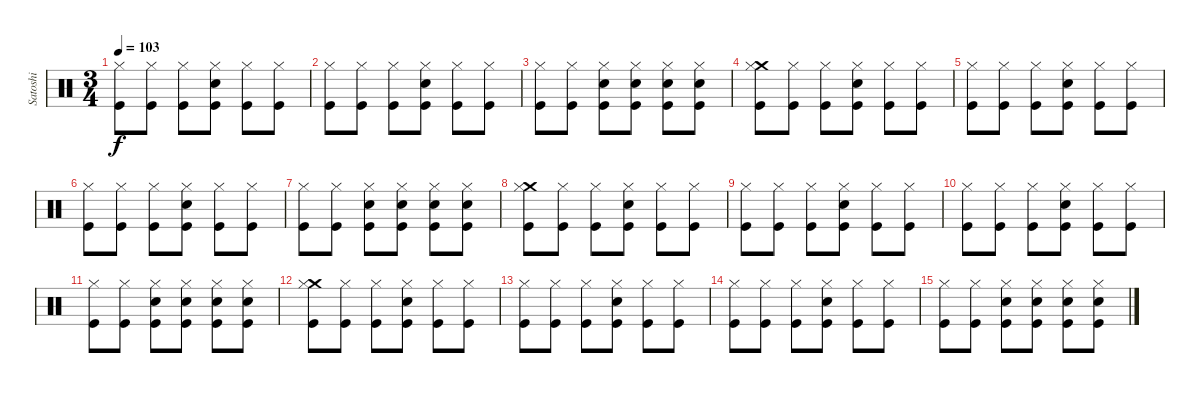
\track ("Satoshi" "Satoshi") {instrument percussion}
\staff {score}
\articulation defaults
\ts (3 4)
\tempo 103
\clef neutral
\ks c
("Hi-Hat (closed)" "Kick (hit)").8{dy f} ("Hi-Hat (closed)" "Kick (hit)").8 ("Hi-Hat (closed)" "Kick (hit)").8 ("Hi-Hat (closed)" "Electric Snare (hit)" "Kick (hit)").8 ("Hi-Hat (closed)" "Kick (hit)").8 ("Hi-Hat (closed)" "Kick (hit)").8 |
("Hi-Hat (closed)" "Kick (hit)").8 ("Hi-Hat (closed)" "Kick (hit)").8 ("Hi-Hat (closed)" "Kick (hit)").8 ("Hi-Hat (closed)" "Electric Snare (hit)" "Kick (hit)").8 ("Hi-Hat (closed)" "Kick (hit)").8 ("Hi-Hat (closed)" "Kick (hit)").8 |
("Hi-Hat (closed)" "Kick (hit)").8 ("Hi-Hat (closed)" "Kick (hit)").8 ("Hi-Hat (closed)" "Electric Snare (hit)" "Kick (hit)").8 ("Hi-Hat (closed)" "Electric Snare (hit)" "Kick (hit)").8 ("Hi-Hat (closed)" "Electric Snare (hit)" "Kick (hit)").8 ("Hi-Hat (closed)" "Electric Snare (hit)" "Kick (hit)").8 |
("Crash medium (hit)" "Hi-Hat (closed)" "Kick (hit)").8 ("Hi-Hat (closed)" "Kick (hit)").8 ("Hi-Hat (closed)" "Kick (hit)").8 ("Hi-Hat (closed)" "Electric Snare (hit)" "Kick (hit)").8 ("Hi-Hat (closed)" "Kick (hit)").8 ("Hi-Hat (closed)" "Kick (hit)").8 |
("Hi-Hat (closed)" "Kick (hit)").8 ("Hi-Hat (closed)" "Kick (hit)").8 ("Hi-Hat (closed)" "Kick (hit)").8 ("Hi-Hat (closed)" "Electric Snare (hit)" "Kick (hit)").8 ("Hi-Hat (closed)" "Kick (hit)").8 ("Hi-Hat (closed)" "Kick (hit)").8 |
("Hi-Hat (closed)" "Kick (hit)").8 ("Hi-Hat (closed)" "Kick (hit)").8 ("Hi-Hat (closed)" "Kick (hit)").8 ("Hi-Hat (closed)" "Electric Snare (hit)" "Kick (hit)").8 ("Hi-Hat (closed)" "Kick (hit)").8 ("Hi-Hat (closed)" "Kick (hit)").8 |
("Hi-Hat (closed)" "Kick (hit)").8 ("Hi-Hat (closed)" "Kick (hit)").8 ("Hi-Hat (closed)" "Electric Snare (hit)" "Kick (hit)").8 ("Hi-Hat (closed)" "Electric Snare (hit)" "Kick (hit)").8 ("Hi-Hat (closed)" "Electric Snare (hit)" "Kick (hit)").8 ("Hi-Hat (closed)" "Electric Snare (hit)" "Kick (hit)").8 |
("Crash medium (hit)" "Hi-Hat (closed)" "Kick (hit)").8 ("Hi-Hat (closed)" "Kick (hit)").8 ("Hi-Hat (closed)" "Kick (hit)").8 ("Hi-Hat (closed)" "Electric Snare (hit)" "Kick (hit)").8 ("Hi-Hat (closed)" "Kick (hit)").8 ("Hi-Hat (closed)" "Kick (hit)").8 |
("Hi-Hat (closed)" "Kick (hit)").8 ("Hi-Hat (closed)" "Kick (hit)").8 ("Hi-Hat (closed)" "Kick (hit)").8 ("Hi-Hat (closed)" "Electric Snare (hit)" "Kick (hit)").8 ("Hi-Hat (closed)" "Kick (hit)").8 ("Hi-Hat (closed)" "Kick (hit)").8 |
("Hi-Hat (closed)" "Kick (hit)").8 ("Hi-Hat (closed)" "Kick (hit)").8 ("Hi-Hat (closed)" "Kick (hit)").8 ("Hi-Hat (closed)" "Electric Snare (hit)" "Kick (hit)").8 ("Hi-Hat (closed)" "Kick (hit)").8 ("Hi-Hat (closed)" "Kick (hit)").8 |
("Hi-Hat (closed)" "Kick (hit)").8 ("Hi-Hat (closed)" "Kick (hit)").8 ("Hi-Hat (closed)" "Electric Snare (hit)" "Kick (hit)").8 ("Hi-Hat (closed)" "Electric Snare (hit)" "Kick (hit)").8 ("Hi-Hat (closed)" "Electric Snare (hit)" "Kick (hit)").8 ("Hi-Hat (closed)" "Electric Snare (hit)" "Kick (hit)").8 |
("Crash medium (hit)" "Hi-Hat (closed)" "Kick (hit)").8 ("Hi-Hat (closed)" "Kick (hit)").8 ("Hi-Hat (closed)" "Kick (hit)").8 ("Hi-Hat (closed)" "Electric Snare (hit)" "Kick (hit)").8 ("Hi-Hat (closed)" "Kick (hit)").8 ("Hi-Hat (closed)" "Kick (hit)").8 |
("Hi-Hat (closed)" "Kick (hit)").8 ("Hi-Hat (closed)" "Kick (hit)").8 ("Hi-Hat (closed)" "Kick (hit)").8 ("Hi-Hat (closed)" "Electric Snare (hit)" "Kick (hit)").8 ("Hi-Hat (closed)" "Kick (hit)").8 ("Hi-Hat (closed)" "Kick (hit)").8 |
("Hi-Hat (closed)" "Kick (hit)").8 ("Hi-Hat (closed)" "Kick (hit)").8 ("Hi-Hat (closed)" "Kick (hit)").8 ("Hi-Hat (closed)" "Electric Snare (hit)" "Kick (hit)").8 ("Hi-Hat (closed)" "Kick (hit)").8 ("Hi-Hat (closed)" "Kick (hit)").8 |
("Hi-Hat (closed)" "Kick (hit)").8 ("Hi-Hat (closed)" "Kick (hit)").8 ("Hi-Hat (closed)" "Electric Snare (hit)" "Kick (hit)").8 ("Hi-Hat (closed)" "Electric Snare (hit)" "Kick (hit)").8 ("Hi-Hat (closed)" "Electric Snare (hit)" "Kick (hit)").8 ("Hi-Hat (closed)" "Electric Snare (hit)" "Kick (hit)").8
